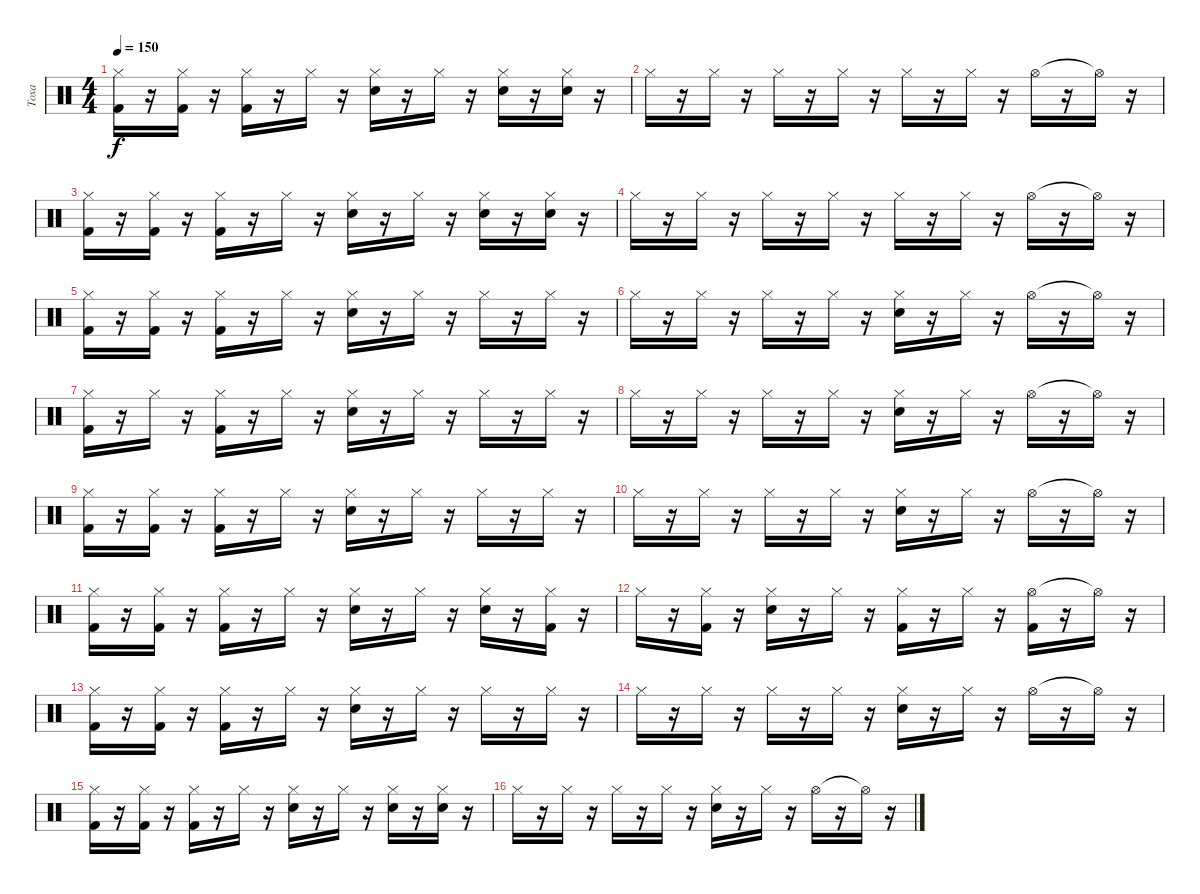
\track ("Тоха" "Тоха") {instrument percussion}
\staff {score}
\articulation defaults
\ts (4 4)
\tempo 150
\clef neutral
\ks c
("Hi-Hat (closed)" "Kick (hit) 2").16{dy f} r.16 ("Hi-Hat (closed)" "Kick (hit) 2").16 r.16 ("Hi-Hat (closed)" "Kick (hit) 2").16 r.16 "Hi-Hat (closed)".16 r.16 ("Hi-Hat (closed)" "Electric Snare (hit)").16 r.16 "Hi-Hat (closed)".16 r.16 ("Hi-Hat (closed)" "Electric Snare (hit)").16 r.16 ("Hi-Hat (closed)" "Electric Snare (hit)").16 r.16 |
"Hi-Hat (closed)".16 r.16 "Hi-Hat (closed)".16 r.16 "Hi-Hat (closed)".16 r.16 "Hi-Hat (closed)".16 r.16 "Hi-Hat (closed)".16 r.16 "Hi-Hat (closed)".16 r.16 "Hi-Hat (open)".16 r.16 "Hi-Hat (open)"{t}.16 r.16 |
("Hi-Hat (closed)" "Kick (hit) 2").16 r.16 ("Hi-Hat (closed)" "Kick (hit) 2").16 r.16 ("Hi-Hat (closed)" "Kick (hit) 2").16 r.16 "Hi-Hat (closed)".16 r.16 ("Hi-Hat (closed)" "Electric Snare (hit)").16 r.16 "Hi-Hat (closed)".16 r.16 ("Hi-Hat (closed)" "Electric Snare (hit)").16 r.16 ("Hi-Hat (closed)" "Electric Snare (hit)").16 r.16 |
"Hi-Hat (closed)".16 r.16 "Hi-Hat (closed)".16 r.16 "Hi-Hat (closed)".16 r.16 "Hi-Hat (closed)".16 r.16 "Hi-Hat (closed)".16 r.16 "Hi-Hat (closed)".16 r.16 "Hi-Hat (open)".16 r.16 "Hi-Hat (open)"{t}.16 r.16 |
("Hi-Hat (closed)" "Kick (hit) 2").16 r.16 ("Hi-Hat (closed)" "Kick (hit) 2").16 r.16 ("Hi-Hat (closed)" "Kick (hit) 2").16 r.16 "Hi-Hat (closed)".16 r.16 ("Hi-Hat (closed)" "Electric Snare (hit)").16 r.16 "Hi-Hat (closed)".16 r.16 "Hi-Hat (closed)".16 r.16 "Hi-Hat (closed)".16 r.16 |
"Hi-Hat (closed)".16 r.16 "Hi-Hat (closed)".16 r.16 "Hi-Hat (closed)".16 r.16 "Hi-Hat (closed)".16 r.16 ("Hi-Hat (closed)" "Electric Snare (hit)").16 r.16 "Hi-Hat (closed)".16 r.16 "Hi-Hat (open)".16 r.16 "Hi-Hat (open)"{t}.16 r.16 |
("Hi-Hat (closed)" "Kick (hit) 2").16 r.16 "Hi-Hat (closed)".16 r.16 ("Hi-Hat (closed)" "Kick (hit) 2").16 r.16 "Hi-Hat (closed)".16 r.16 ("Hi-Hat (closed)" "Electric Snare (hit)").16 r.16 "Hi-Hat (closed)".16 r.16 "Hi-Hat (closed)".16 r.16 "Hi-Hat (closed)".16 r.16 |
"Hi-Hat (closed)".16 r.16 "Hi-Hat (closed)".16 r.16 "Hi-Hat (closed)".16 r.16 "Hi-Hat (closed)".16 r.16 ("Hi-Hat (closed)" "Electric Snare (hit)").16 r.16 "Hi-Hat (closed)".16 r.16 "Hi-Hat (open)".16 r.16 "Hi-Hat (open)"{t}.16 r.16 |
("Hi-Hat (closed)" "Kick (hit) 2").16 r.16 ("Hi-Hat (closed)" "Kick (hit) 2").16 r.16 ("Hi-Hat (closed)" "Kick (hit) 2").16 r.16 "Hi-Hat (closed)".16 r.16 ("Hi-Hat (closed)" "Electric Snare (hit)").16 r.16 "Hi-Hat (closed)".16 r.16 "Hi-Hat (closed)".16 r.16 "Hi-Hat (closed)".16 r.16 |
"Hi-Hat (closed)".16 r.16 "Hi-Hat (closed)".16 r.16 "Hi-Hat (closed)".16 r.16 "Hi-Hat (closed)".16 r.16 ("Hi-Hat (closed)" "Electric Snare (hit)").16 r.16 "Hi-Hat (closed)".16 r.16 "Hi-Hat (open)".16 r.16 "Hi-Hat (open)"{t}.16 r.16 |
("Hi-Hat (closed)" "Kick (hit) 2").16 r.16 ("Hi-Hat (closed)" "Kick (hit) 2").16 r.16 ("Hi-Hat (closed)" "Kick (hit) 2").16 r.16 "Hi-Hat (closed)".16 r.16 ("Hi-Hat (closed)" "Electric Snare (hit)").16 r.16 "Hi-Hat (closed)".16 r.16 ("Hi-Hat (closed)" "Electric Snare (hit)").16 r.16 ("Hi-Hat (closed)" "Kick (hit) 2").16 r.16 |
"Hi-Hat (closed)".16 r.16 ("Hi-Hat (closed)" "Kick (hit) 2").16 r.16 ("Hi-Hat (closed)" "Electric Snare (hit)").16 r.16 "Hi-Hat (closed)".16 r.16 ("Hi-Hat (closed)" "Kick (hit) 2").16 r.16 "Hi-Hat (closed)".16 r.16 ("Hi-Hat (open)" "Kick (hit) 2").16 r.16 "Hi-Hat (open)"{t}.16 r.16 |
("Hi-Hat (closed)" "Kick (hit) 2").16 r.16 ("Hi-Hat (closed)" "Kick (hit) 2").16 r.16 ("Hi-Hat (closed)" "Kick (hit) 2").16 r.16 "Hi-Hat (closed)".16 r.16 ("Hi-Hat (closed)" "Electric Snare (hit)").16 r.16 "Hi-Hat (closed)".16 r.16 "Hi-Hat (closed)".16 r.16 "Hi-Hat (closed)".16 r.16 |
"Hi-Hat (closed)".16 r.16 "Hi-Hat (closed)".16 r.16 "Hi-Hat (closed)".16 r.16 "Hi-Hat (closed)".16 r.16 ("Hi-Hat (closed)" "Electric Snare (hit)").16 r.16 "Hi-Hat (closed)".16 r.16 "Hi-Hat (open)".16 r.16 "Hi-Hat (open)"{t}.16 r.16 |
("Hi-Hat (closed)" "Kick (hit) 2").16 r.16 ("Hi-Hat (closed)" "Kick (hit) 2").16 r.16 ("Hi-Hat (closed)" "Kick (hit) 2").16 r.16 "Hi-Hat (closed)".16 r.16 ("Hi-Hat (closed)" "Electric Snare (hit)").16 r.16 "Hi-Hat (closed)".16 r.16 ("Hi-Hat (closed)" "Electric Snare (hit)").16 r.16 ("Hi-Hat (closed)" "Electric Snare (hit)").16 r.16 |
"Hi-Hat (closed)".16 r.16 "Hi-Hat (closed)".16 r.16 "Hi-Hat (closed)".16 r.16 "Hi-Hat (closed)".16 r.16 ("Hi-Hat (closed)" "Electric Snare (hit)").16 r.16 "Hi-Hat (closed)".16 r.16 "Hi-Hat (open)".16 r.16 "Hi-Hat (open)"{t}.16 r.16
